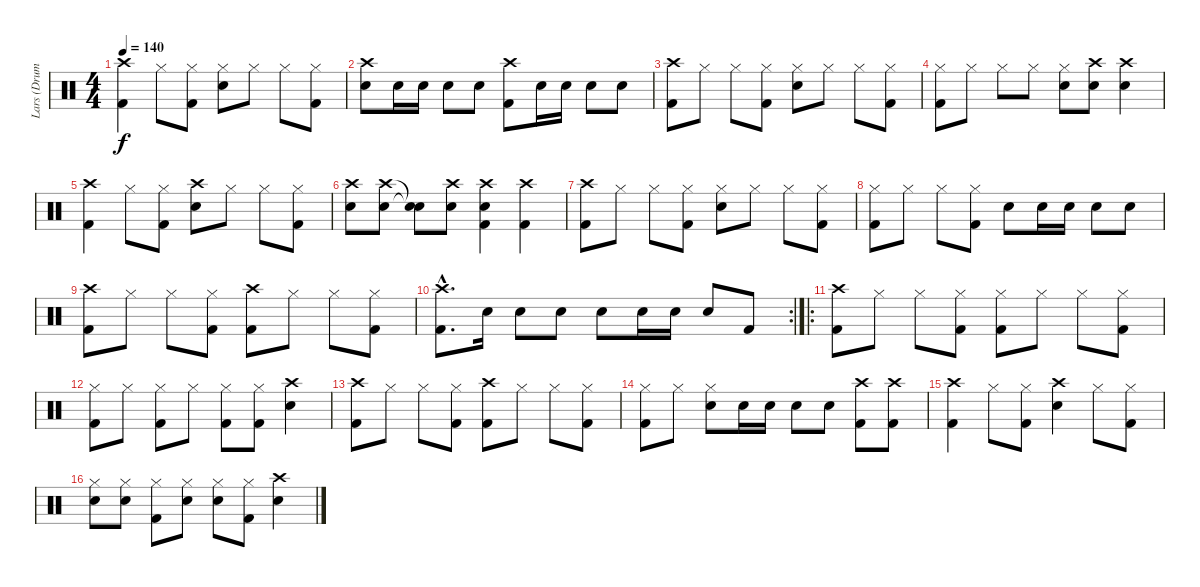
\track ("Lars (Drums)" "Lars (Drum") {instrument percussion}
\staff {score}
\articulation defaults
\ts (4 4)
\tempo 140
\clef neutral
\ks c
("Crash high (hit)" "Kick (hit) 2").4{dy f} "Hi-Hat (closed)".8 ("Kick (hit) 2" "Hi-Hat (closed)").8 ("Hi-Hat (closed)" "Snare (hit) 2").8 "Hi-Hat (closed)".8 "Hi-Hat (closed)".8 ("Kick (hit) 2" "Hi-Hat (closed)").8 |
("Crash high (hit)" "Snare (hit) 2").8 "Snare (hit) 2".16 "Snare (hit) 2".16 "Snare (hit) 2".8 "Snare (hit) 2".8 ("Crash high (hit)" "Kick (hit) 2").8 "Snare (hit) 2".16 "Snare (hit) 2".16 "Snare (hit) 2".8 "Snare (hit) 2".8 |
("Crash high (hit)" "Kick (hit) 2").8 "Hi-Hat (closed)".8 "Hi-Hat (closed)".8 ("Hi-Hat (closed)" "Kick (hit) 2").8 ("Hi-Hat (closed)" "Snare (hit) 2").8 "Hi-Hat (closed)".8 "Hi-Hat (closed)".8 ("Hi-Hat (closed)" "Kick (hit) 2").8 |
("Hi-Hat (closed)" "Kick (hit) 2").8 "Hi-Hat (closed)".8 "Hi-Hat (closed)".8 "Hi-Hat (closed)".8 ("Hi-Hat (closed)" "Snare (hit) 2").8 ("Crash high (hit)" "Snare (hit) 2").8 ("Crash high (hit)" "Snare (hit) 2").4 |
("Crash high (hit)" "Kick (hit) 2").4 "Hi-Hat (closed)".8 ("Hi-Hat (closed)" "Kick (hit) 2").8 ("Crash high (hit)" "Snare (hit) 2").8 "Hi-Hat (closed)".8 "Hi-Hat (closed)".8 ("Hi-Hat (closed)" "Kick (hit) 2").8 |
("Crash high (hit)" "Snare (hit) 2").8 ("Crash high (hit)" "Snare (hit) 2").8 ("Snare (hit)"{t} "Snare (hit)"{t}).8 ("Crash high (hit)" "Snare (hit) 2").8 ("Crash high (hit)" "Snare (hit) 2" "Kick (hit) 2").4 ("Crash high (hit)" "Kick (hit) 2").4 |
("Crash high (hit)" "Kick (hit) 2").8 "Hi-Hat (closed)".8 "Hi-Hat (closed)".8 ("Hi-Hat (closed)" "Kick (hit) 2").8 ("Hi-Hat (closed)" "Snare (hit) 2").8 "Hi-Hat (closed)".8 "Hi-Hat (closed)".8 ("Hi-Hat (closed)" "Kick (hit) 2").8 |
("Hi-Hat (closed)" "Kick (hit) 2").8 "Hi-Hat (closed)".8 "Hi-Hat (closed)".8 ("Hi-Hat (closed)" "Kick (hit) 2").8 "Snare (hit) 2".8 "Snare (hit) 2".16 "Snare (hit) 2".16 "Snare (hit) 2".8 "Snare (hit) 2".8 |
("Crash high (hit)" "Kick (hit) 2").8 "Hi-Hat (closed)".8 "Hi-Hat (closed)".8 ("Hi-Hat (closed)" "Kick (hit) 2").8 ("Crash high (hit)" "Kick (hit) 2").8 "Hi-Hat (closed)".8 "Hi-Hat (closed)".8 ("Hi-Hat (closed)" "Kick (hit) 2").8 |
\rc 2
("Crash high (hit)"{hac} "Kick (hit) 2"{hac}).8{d} "Snare (hit) 2".16 "Snare (hit) 2".8 "Snare (hit) 2".8 "Snare (hit) 2".8 "Snare (hit) 2".16 "Snare (hit) 2".16 "Snare (hit) 2".8 "Kick (hit) 2".8 |
\ro
("Crash high (hit)" "Kick (hit) 2").8 "Hi-Hat (closed)".8 "Hi-Hat (closed)".8 ("Hi-Hat (closed)" "Kick (hit) 2").8 ("Hi-Hat (closed)" "Kick (hit) 2").8 "Hi-Hat (closed)".8 "Hi-Hat (closed)".8 ("Hi-Hat (closed)" "Kick (hit) 2").8 |
("Hi-Hat (closed)" "Kick (hit) 2").8 "Hi-Hat (closed)".8 ("Hi-Hat (closed)" "Kick (hit) 2").8 "Hi-Hat (closed)".8 ("Hi-Hat (closed)" "Kick (hit) 2").8 ("Hi-Hat (closed)" "Kick (hit) 2").8 ("Crash high (hit)" "Snare (hit) 2").4 |
("Crash high (hit)" "Kick (hit) 2").8 "Hi-Hat (closed)".8 "Hi-Hat (closed)".8 ("Hi-Hat (closed)" "Kick (hit) 2").8 ("Crash high (hit)" "Kick (hit) 2").8 "Hi-Hat (closed)".8 "Hi-Hat (closed)".8 ("Hi-Hat (closed)" "Kick (hit) 2").8 |
("Hi-Hat (closed)" "Kick (hit) 2").8 "Hi-Hat (closed)".8 ("Hi-Hat (closed)" "Snare (hit) 2").8 "Snare (hit) 2".16 "Snare (hit) 2".16 "Snare (hit) 2".8 "Snare (hit) 2".8 ("Crash high (hit)" "Kick (hit) 2").8 ("Crash high (hit)" "Kick (hit) 2").8 |
("Crash high (hit)" "Kick (hit) 2").4 "Hi-Hat (closed)".8 ("Hi-Hat (closed)" "Kick (hit) 2").8 ("Crash high (hit)" "Snare (hit) 2").4 "Hi-Hat (closed)".8 ("Hi-Hat (closed)" "Kick (hit) 2").8 |
("Hi-Hat (closed)" "Snare (hit) 2").8 ("Hi-Hat (closed)" "Snare (hit) 2").8 ("Hi-Hat (closed)" "Kick (hit) 2").8 ("Hi-Hat (closed)" "Snare (hit) 2").8 ("Hi-Hat (closed)" "Snare (hit) 2").8 ("Hi-Hat (closed)" "Kick (hit) 2").8 ("Crash high (hit)" "Snare (hit) 2").4
